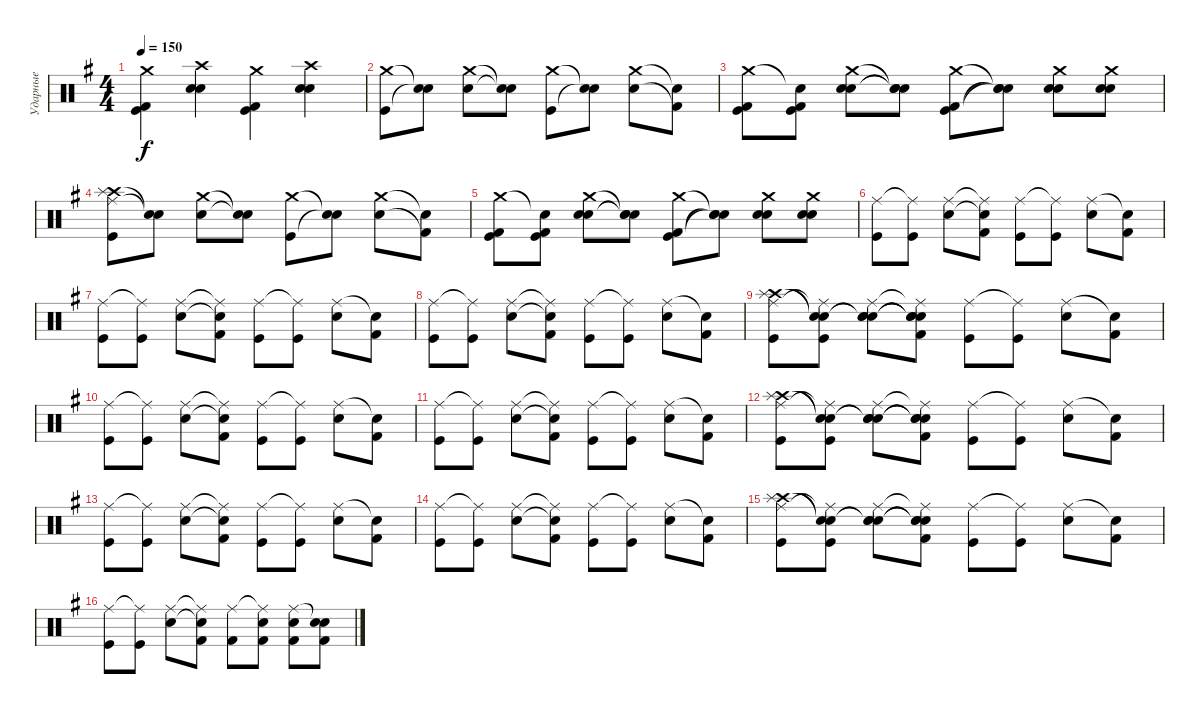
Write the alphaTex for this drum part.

\track ("Ударные" "Ударные") {instrument percussion}
\staff {score}
\articulation defaults
\ts (4 4)
\tempo 150
\clef neutral
\ks g
("Crash medium (hit)" "Kick (hit) 2" "Kick (hit)").4{dy f} ("Crash high (hit)" "Snare (hit) 2" "Snare (hit) 2").4 ("Crash medium (hit)" "Kick (hit) 2" "Kick (hit)").4 ("Crash high (hit)" "Snare (hit) 2" "Snare (hit) 2").4 |
("Crash medium (hit)" "Kick (hit)").8 ("Snare (hit)"{t} "Snare (hit)"{t}).8 ("Crash medium (hit)" "Snare (hit) 2").8 ("Snare (hit)"{t} "Snare (hit)"{t}).8 ("Crash medium (hit)" "Kick (hit)").8 ("Snare (hit)"{t} "Snare (hit)"{t}).8 ("Crash medium (hit)" "Snare (hit) 2").8 ("Snare (hit)"{t} "Kick (hit) 2"{t}).8 |
("Crash medium (hit)" "Kick (hit) 2" "Kick (hit)").8 ("Snare (hit)"{t} "Kick (hit) 2" "Kick (hit)").8 ("Crash medium (hit)" "Snare (hit) 2" "Electric Snare (hit)").8 ("Snare (hit)"{t} "Snare (hit) 2"{t} "Snare (hit)"{t}).8 ("Crash medium (hit)" "Kick (hit) 2" "Kick (hit)").8 ("Snare (hit)"{t} "Snare (hit)"{t} "Snare (hit)"{t}).8 ("Crash medium (hit)" "Snare (hit) 2" "Electric Snare (hit)").8 ("Crash medium (hit)" "Snare (hit) 2" "Electric Snare (hit)").8 |
("Ride (middle)" "Crash high (hit)" "Splash (hit)" "Kick (hit)").8 ("Snare (hit)"{t} "Snare (hit)"{t}).8 ("Crash medium (hit)" "Snare (hit) 2").8 ("Snare (hit)"{t} "Snare (hit)"{t}).8 ("Crash medium (hit)" "Kick (hit)").8 ("Snare (hit)"{t} "Snare (hit)"{t}).8 ("Crash medium (hit)" "Snare (hit) 2").8 ("Snare (hit)"{t} "Kick (hit) 2"{t}).8 |
("Crash medium (hit)" "Kick (hit) 2" "Kick (hit)").8 ("Snare (hit)"{t} "Kick (hit) 2" "Kick (hit)").8 ("Crash medium (hit)" "Snare (hit) 2" "Electric Snare (hit)").8 ("Snare (hit)"{t} "Snare (hit) 2"{t} "Snare (hit)"{t}).8 ("Crash medium (hit)" "Kick (hit) 2" "Kick (hit)").8 ("Snare (hit)"{t} "Snare (hit)"{t} "Snare (hit)"{t}).8 ("Crash medium (hit)" "Snare (hit) 2" "Electric Snare (hit)").8 ("Crash medium (hit)" "Snare (hit) 2" "Electric Snare (hit)").8 |
("Ride (middle)" "Kick (hit)").8 ("Ride (middle)"{t} "Kick (hit)").8 ("Ride (middle)" "Snare (hit) 2").8 ("Ride (middle)"{t} "Snare (hit)"{t} "Kick (hit) 2").8 ("Ride (middle)" "Kick (hit)").8 ("Ride (middle)"{t} "Kick (hit)").8 ("Ride (middle)" "Snare (hit) 2").8 ("Snare (hit)"{t} "Kick (hit) 2").8 |
("Ride (middle)" "Kick (hit)").8 ("Ride (middle)"{t} "Kick (hit)").8 ("Ride (middle)" "Snare (hit) 2").8 ("Ride (middle)"{t} "Snare (hit)"{t} "Kick (hit) 2").8 ("Ride (middle)" "Kick (hit)").8 ("Ride (middle)"{t} "Kick (hit)").8 ("Ride (middle)" "Snare (hit) 2").8 ("Snare (hit)"{t} "Kick (hit) 2").8 |
("Ride (middle)" "Kick (hit)").8 ("Ride (middle)"{t} "Kick (hit)").8 ("Ride (middle)" "Snare (hit) 2").8 ("Ride (middle)"{t} "Snare (hit)"{t} "Kick (hit) 2").8 ("Ride (middle)" "Kick (hit)").8 ("Ride (middle)"{t} "Kick (hit)").8 ("Ride (middle)" "Snare (hit) 2").8 ("Snare (hit)"{t} "Kick (hit) 2").8 |
("Ride (middle)" "Crash high (hit)" "Splash (hit)" "Kick (hit)").8 ("Ride (middle)"{t} "Snare (hit)"{t} "Snare (hit)"{t} "Kick (hit)").8 ("Ride (middle)" "Snare (hit)"{t} "Snare (hit)"{t} "Snare (hit) 2").8 ("Ride (middle)"{t} "Snare (hit)"{t} "Snare (hit)"{t} "Snare (hit)"{t} "Kick (hit) 2").8 ("Ride (middle)" "Kick (hit)").8 ("Ride (middle)"{t} "Kick (hit)").8 ("Ride (middle)" "Snare (hit) 2").8 ("Snare (hit)"{t} "Kick (hit) 2").8 |
("Ride (middle)" "Kick (hit)").8 ("Ride (middle)"{t} "Kick (hit)").8 ("Ride (middle)" "Snare (hit) 2").8 ("Ride (middle)"{t} "Snare (hit)"{t} "Kick (hit) 2").8 ("Ride (middle)" "Kick (hit)").8 ("Ride (middle)"{t} "Kick (hit)").8 ("Ride (middle)" "Snare (hit) 2").8 ("Snare (hit)"{t} "Kick (hit) 2").8 |
("Ride (middle)" "Kick (hit)").8 ("Ride (middle)"{t} "Kick (hit)").8 ("Ride (middle)" "Snare (hit) 2").8 ("Ride (middle)"{t} "Snare (hit)"{t} "Kick (hit) 2").8 ("Ride (middle)" "Kick (hit)").8 ("Ride (middle)"{t} "Kick (hit)").8 ("Ride (middle)" "Snare (hit) 2").8 ("Snare (hit)"{t} "Kick (hit) 2").8 |
("Ride (middle)" "Crash high (hit)" "Splash (hit)" "Kick (hit)").8 ("Ride (middle)"{t} "Snare (hit)"{t} "Snare (hit)"{t} "Kick (hit)").8 ("Ride (middle)" "Snare (hit)"{t} "Snare (hit)"{t} "Snare (hit) 2").8 ("Ride (middle)"{t} "Snare (hit)"{t} "Snare (hit)"{t} "Snare (hit)"{t} "Kick (hit) 2").8 ("Ride (middle)" "Kick (hit)").8 ("Ride (middle)"{t} "Kick (hit)").8 ("Ride (middle)" "Snare (hit) 2").8 ("Snare (hit)"{t} "Kick (hit) 2").8 |
("Ride (middle)" "Kick (hit)").8 ("Ride (middle)"{t} "Kick (hit)").8 ("Ride (middle)" "Snare (hit) 2").8 ("Ride (middle)"{t} "Snare (hit)"{t} "Kick (hit) 2").8 ("Ride (middle)" "Kick (hit)").8 ("Ride (middle)"{t} "Kick (hit)").8 ("Ride (middle)" "Snare (hit) 2").8 ("Snare (hit)"{t} "Kick (hit) 2").8 |
("Ride (middle)" "Kick (hit)").8 ("Ride (middle)"{t} "Kick (hit)").8 ("Ride (middle)" "Snare (hit) 2").8 ("Ride (middle)"{t} "Snare (hit)"{t} "Kick (hit) 2").8 ("Ride (middle)" "Kick (hit)").8 ("Ride (middle)"{t} "Kick (hit)").8 ("Ride (middle)" "Snare (hit) 2").8 ("Snare (hit)"{t} "Kick (hit) 2").8 |
("Ride (middle)" "Crash high (hit)" "Splash (hit)" "Kick (hit)").8 ("Ride (middle)"{t} "Snare (hit)"{t} "Snare (hit)"{t} "Kick (hit)").8 ("Ride (middle)" "Snare (hit)"{t} "Snare (hit)"{t} "Snare (hit) 2").8 ("Ride (middle)"{t} "Snare (hit)"{t} "Snare (hit)"{t} "Snare (hit)"{t} "Kick (hit) 2").8 ("Ride (middle)" "Kick (hit)").8 ("Ride (middle)"{t} "Kick (hit)").8 ("Ride (middle)" "Snare (hit) 2").8 ("Snare (hit)"{t} "Kick (hit) 2").8 |
("Ride (middle)" "Kick (hit)").8 ("Ride (middle)"{t} "Kick (hit)").8 ("Ride (middle)" "Snare (hit) 2").8 ("Ride (middle)"{t} "Snare (hit)"{t} "Kick (hit) 2").8 ("Ride (middle)" "Kick (hit) 2").8 ("Ride (middle)"{t} "Snare (hit) 2" "Kick (hit) 2").8 ("Ride (middle)" "Snare (hit) 2" "Kick (hit) 2").8 ("Snare (hit)"{t} "Snare (hit) 2" "Kick (hit) 2").8
